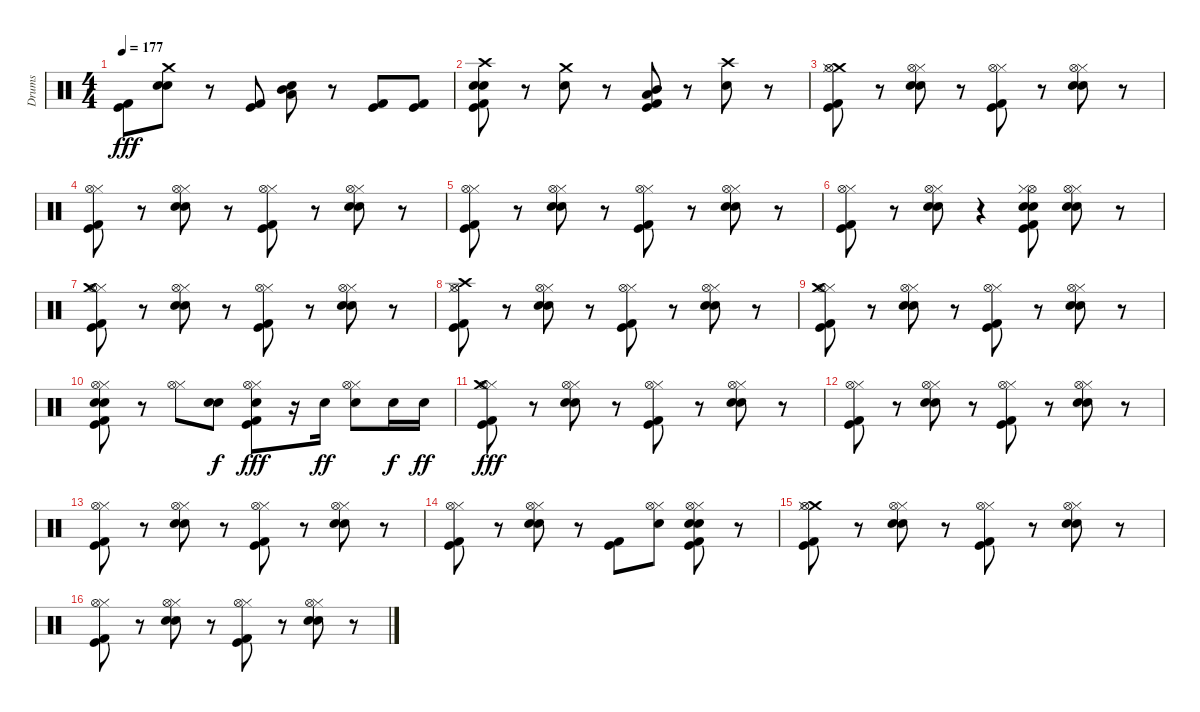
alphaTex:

\track ("Drums" "Drums") {instrument percussion}
\staff {score}
\articulation defaults
\ts (4 4)
\tempo 177
\clef neutral
\ks c
("Kick (hit) 2" "Kick (hit)").8{dy fff} ("Electric Snare (hit)" "Snare (hit) 2" "Crash medium (hit)").8 r.8 ("Kick (hit) 2" "Kick (hit)").8 ("Electric Snare (hit)" "Low Tom (hit)" "Mid Tom (hit)").8 r.8 ("Kick (hit) 2" "Kick (hit)").8 ("Kick (hit) 2" "Kick (hit)").8 |
("Crash high (hit)" "Snare (hit) 2" "Electric Snare (hit)" "Kick (hit) 2" "Kick (hit)").8 r.8 ("Crash medium (hit)" "Snare (hit) 2").8 r.8 ("Mid Tom (hit)" "Low Tom (hit)" "Kick (hit) 2" "Kick (hit)").8 r.8 ("Crash high (hit)" "Electric Snare (hit)").8 r.8 |
("Crash medium (hit)" "Kick (hit) 2" "Kick (hit)" "Hi-Hat (closed)" "Hi-Hat (open)").8 r.8 ("Electric Snare (hit)" "Snare (hit) 2" "Hi-Hat (closed)" "Hi-Hat (open)").8 r.8 ("Kick (hit) 2" "Kick (hit)" "Hi-Hat (closed)" "Hi-Hat (open)").8 r.8 ("Electric Snare (hit)" "Snare (hit) 2" "Hi-Hat (closed)" "Hi-Hat (open)").8 r.8 |
("Kick (hit) 2" "Kick (hit)" "Hi-Hat (closed)" "Hi-Hat (open)").8 r.8 ("Electric Snare (hit)" "Snare (hit) 2" "Hi-Hat (closed)" "Hi-Hat (open)").8 r.8 ("Kick (hit) 2" "Kick (hit)" "Hi-Hat (closed)" "Hi-Hat (open)").8 r.8 ("Electric Snare (hit)" "Snare (hit) 2" "Hi-Hat (closed)" "Hi-Hat (open)").8 r.8 |
("Kick (hit) 2" "Kick (hit)" "Hi-Hat (closed)" "Hi-Hat (open)").8 r.8 ("Electric Snare (hit)" "Snare (hit) 2" "Hi-Hat (closed)" "Hi-Hat (open)").8 r.8 ("Kick (hit) 2" "Kick (hit)" "Hi-Hat (closed)" "Hi-Hat (open)").8 r.8 ("Electric Snare (hit)" "Snare (hit) 2" "Hi-Hat (closed)" "Hi-Hat (open)").8 r.8 |
("Kick (hit) 2" "Kick (hit)" "Hi-Hat (closed)" "Hi-Hat (open)").8 r.8 ("Hi-Hat (closed)" "Electric Snare (hit)" "Snare (hit) 2" "Hi-Hat (open)").8 r.4 ("Electric Snare (hit)" "Hi-Hat (open)" "Hi-Hat (closed)" "Kick (hit) 2" "Kick (hit)" "Snare (hit) 2").8 ("Hi-Hat (closed)" "Electric Snare (hit)" "Snare (hit) 2" "Hi-Hat (open)").8 r.8 |
("Kick (hit) 2" "Kick (hit)" "Hi-Hat (closed)" "Hi-Hat (open)" "Crash medium (hit)").8 r.8 ("Electric Snare (hit)" "Snare (hit) 2" "Hi-Hat (closed)" "Hi-Hat (open)").8 r.8 ("Kick (hit) 2" "Kick (hit)" "Hi-Hat (closed)" "Hi-Hat (open)").8 r.8 ("Electric Snare (hit)" "Snare (hit) 2" "Hi-Hat (closed)" "Hi-Hat (open)").8 r.8 |
("Kick (hit) 2" "Kick (hit)" "Hi-Hat (closed)" "Hi-Hat (open)" "Crash high (hit)").8 r.8 ("Electric Snare (hit)" "Snare (hit) 2" "Hi-Hat (closed)" "Hi-Hat (open)").8 r.8 ("Kick (hit) 2" "Kick (hit)" "Hi-Hat (closed)" "Hi-Hat (open)").8 r.8 ("Electric Snare (hit)" "Snare (hit) 2" "Hi-Hat (closed)" "Hi-Hat (open)").8 r.8 |
("Kick (hit) 2" "Kick (hit)" "Hi-Hat (closed)" "Hi-Hat (open)" "Crash medium (hit)").8 r.8 ("Electric Snare (hit)" "Snare (hit) 2" "Hi-Hat (closed)" "Hi-Hat (open)").8 r.8 ("Kick (hit) 2" "Kick (hit)" "Hi-Hat (closed)" "Hi-Hat (open)").8 r.8 ("Electric Snare (hit)" "Snare (hit) 2" "Hi-Hat (closed)" "Hi-Hat (open)").8 r.8 |
("Kick (hit) 2" "Kick (hit)" "Hi-Hat (closed)" "Hi-Hat (open)" "Snare (hit) 2" "Electric Snare (hit)").8 r.8 ("Hi-Hat (closed)" "Hi-Hat (open)").8 ("Electric Snare (hit)" "Snare (hit) 2").8{dy f} ("Kick (hit) 2" "Kick (hit)" "Hi-Hat (closed)" "Hi-Hat (open)" "Electric Snare (hit)").8{dy fff} r.16 "Electric Snare (hit)".16{dy ff} ("Hi-Hat (closed)" "Hi-Hat (open)" "Electric Snare (hit)").8 "Electric Snare (hit)".16{dy f} "Electric Snare (hit)".16{dy ff} |
("Kick (hit) 2" "Kick (hit)" "Hi-Hat (closed)" "Hi-Hat (open)" "Crash medium (hit)").8{dy fff} r.8 ("Electric Snare (hit)" "Snare (hit) 2" "Hi-Hat (closed)" "Hi-Hat (open)").8 r.8 ("Kick (hit) 2" "Kick (hit)" "Hi-Hat (closed)" "Hi-Hat (open)").8 r.8 ("Electric Snare (hit)" "Snare (hit) 2" "Hi-Hat (closed)" "Hi-Hat (open)").8 r.8 |
("Kick (hit) 2" "Kick (hit)" "Hi-Hat (closed)" "Hi-Hat (open)").8 r.8 ("Electric Snare (hit)" "Snare (hit) 2" "Hi-Hat (closed)" "Hi-Hat (open)").8 r.8 ("Kick (hit) 2" "Kick (hit)" "Hi-Hat (closed)" "Hi-Hat (open)").8 r.8 ("Electric Snare (hit)" "Snare (hit) 2" "Hi-Hat (closed)" "Hi-Hat (open)").8 r.8 |
("Kick (hit) 2" "Kick (hit)" "Hi-Hat (closed)" "Hi-Hat (open)").8 r.8 ("Electric Snare (hit)" "Snare (hit) 2" "Hi-Hat (closed)" "Hi-Hat (open)").8 r.8 ("Kick (hit) 2" "Kick (hit)" "Hi-Hat (closed)" "Hi-Hat (open)").8 r.8 ("Electric Snare (hit)" "Snare (hit) 2" "Hi-Hat (closed)" "Hi-Hat (open)").8 r.8 |
("Kick (hit) 2" "Kick (hit)" "Hi-Hat (closed)" "Hi-Hat (open)").8 r.8 ("Electric Snare (hit)" "Snare (hit) 2" "Hi-Hat (closed)" "Hi-Hat (open)").8 r.8 ("Kick (hit) 2" "Kick (hit)").8 ("Electric Snare (hit)" "Hi-Hat (closed)" "Hi-Hat (open)").8 ("Hi-Hat (closed)" "Hi-Hat (open)" "Kick (hit) 2" "Kick (hit)" "Electric Snare (hit)" "Snare (hit) 2").8 r.8 |
("Crash medium (hit)" "Kick (hit) 2" "Kick (hit)" "Hi-Hat (closed)" "Hi-Hat (open)").8 r.8 ("Electric Snare (hit)" "Snare (hit) 2" "Hi-Hat (closed)" "Hi-Hat (open)").8 r.8 ("Kick (hit) 2" "Kick (hit)" "Hi-Hat (closed)" "Hi-Hat (open)").8 r.8 ("Electric Snare (hit)" "Snare (hit) 2" "Hi-Hat (closed)" "Hi-Hat (open)").8 r.8 |
("Kick (hit) 2" "Kick (hit)" "Hi-Hat (closed)" "Hi-Hat (open)").8 r.8 ("Electric Snare (hit)" "Snare (hit) 2" "Hi-Hat (closed)" "Hi-Hat (open)").8 r.8 ("Kick (hit) 2" "Kick (hit)" "Hi-Hat (closed)" "Hi-Hat (open)").8 r.8 ("Electric Snare (hit)" "Snare (hit) 2" "Hi-Hat (closed)" "Hi-Hat (open)").8 r.8
